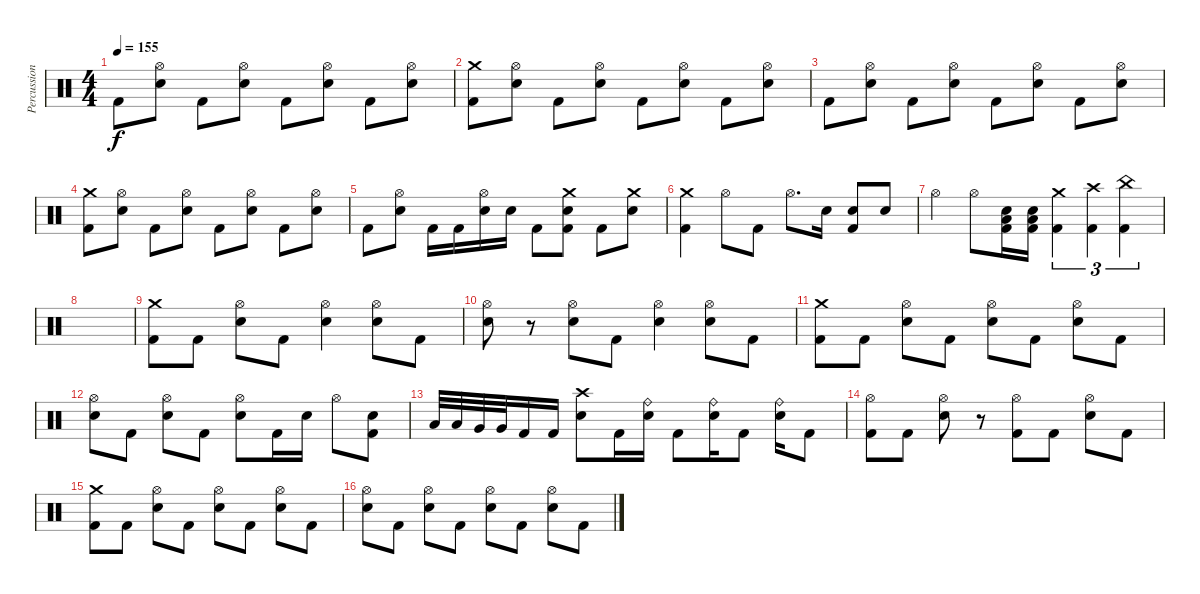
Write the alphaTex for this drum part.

\track ("Percussion" "Percussion") {instrument percussion}
\staff {score}
\articulation defaults
\ts (4 4)
\tempo 155
\clef neutral
\ks c "Kick (hit) 2".8{dy f}
("Hi-Hat (open)" "Electric Snare (hit)").8 "Kick (hit) 2".8 ("Hi-Hat (open)" "Electric Snare (hit)").8 "Kick (hit) 2".8 ("Hi-Hat (open)" "Electric Snare (hit)").8 "Kick (hit) 2".8 ("Hi-Hat (open)" "Electric Snare (hit)").8 |
("Crash medium (hit)" "Kick (hit) 2").8 ("Hi-Hat (open)" "Electric Snare (hit)").8 "Kick (hit) 2".8 ("Hi-Hat (open)" "Electric Snare (hit)").8 "Kick (hit) 2".8 ("Hi-Hat (open)" "Electric Snare (hit)").8 "Kick (hit) 2".8 ("Hi-Hat (open)" "Electric Snare (hit)").8 |
"Kick (hit) 2".8 ("Hi-Hat (open)" "Electric Snare (hit)").8 "Kick (hit) 2".8 ("Hi-Hat (open)" "Electric Snare (hit)").8 "Kick (hit) 2".8 ("Hi-Hat (open)" "Electric Snare (hit)").8 "Kick (hit) 2".8 ("Hi-Hat (open)" "Electric Snare (hit)").8 |
("Crash medium (hit)" "Kick (hit) 2").8 ("Hi-Hat (open)" "Electric Snare (hit)").8 "Kick (hit) 2".8 ("Hi-Hat (open)" "Electric Snare (hit)").8 "Kick (hit) 2".8 ("Hi-Hat (open)" "Electric Snare (hit)").8 "Kick (hit) 2".8 ("Hi-Hat (open)" "Electric Snare (hit)").8 |
"Kick (hit) 2".8 ("Hi-Hat (open)" "Electric Snare (hit)").8 "Kick (hit) 2".16 "Kick (hit) 2".16 ("Hi-Hat (open)" "Electric Snare (hit)").16 "Electric Snare (hit)".16 "Kick (hit) 2".8 ("Crash medium (hit)" "Electric Snare (hit)" "Kick (hit) 2").8 "Kick (hit) 2".8 ("Crash medium (hit)" "Electric Snare (hit)").8 |
("Crash medium (hit)" "Kick (hit) 2").4 "Hi-Hat (open)".8 "Kick (hit) 2".8 "Hi-Hat (open)".8{d} "Electric Snare (hit)".16 ("Electric Snare (hit)" "Kick (hit) 2").8 "Electric Snare (hit)".8 |
"Hi-Hat (open)".4 "Hi-Hat (open)".8 ("Electric Snare (hit)" "Low Floor Tom (hit)" "Kick (hit) 2").16 ("Electric Snare (hit)" "Low Floor Tom (hit)" "Kick (hit) 2").16 ("Crash medium (hit)" "Kick (hit) 2").4{tu (3 2)} ("Crash high (hit)" "Kick (hit) 2").4{tu (3 2)} ("China (hit)" "Kick (hit) 2").4{tu (3 2)} |
|
("Crash medium (hit)" "Kick (hit) 2").8 "Kick (hit) 2".8 ("Hi-Hat (open)" "Electric Snare (hit)").8 "Kick (hit) 2".8 ("Hi-Hat (open)" "Electric Snare (hit)").4 ("Hi-Hat (open)" "Electric Snare (hit)").8 "Kick (hit) 2".8 |
("Hi-Hat (open)" "Electric Snare (hit)").8 r.8 ("Hi-Hat (open)" "Electric Snare (hit)").8 "Kick (hit) 2".8 ("Hi-Hat (open)" "Electric Snare (hit)").4 ("Hi-Hat (open)" "Electric Snare (hit)").8 "Kick (hit) 2".8 |
("Crash medium (hit)" "Kick (hit) 2").8 "Kick (hit) 2".8 ("Hi-Hat (open)" "Electric Snare (hit)").8 "Kick (hit) 2".8 ("Hi-Hat (open)" "Electric Snare (hit)").8 "Kick (hit) 2".8 ("Hi-Hat (open)" "Electric Snare (hit)").8 "Kick (hit) 2".8 |
("Hi-Hat (open)" "Electric Snare (hit)").8 "Kick (hit) 2".8 ("Hi-Hat (open)" "Electric Snare (hit)").8 "Kick (hit) 2".8 ("Hi-Hat (open)" "Electric Snare (hit)").8 "Kick (hit) 2".16 "Electric Snare (hit)".16 "Hi-Hat (open)".8 ("Electric Snare (hit)" "Kick (hit) 2").8 |
"Low Tom (hit)".32 "Low Tom (hit)".32 "Very Low Tom (hit)".32 "Very Low Tom (hit)".32 "Kick (hit) 2".16 "Kick (hit) 2".16 ("Crash high (hit)" "Electric Snare (hit)").8 "Kick (hit) 2".16 ("Ride (bell)" "Electric Snare (hit)").16 "Kick (hit) 2".8 ("Ride (bell)" "Electric Snare (hit)").16 "Kick (hit) 2".8 ("Ride (bell)" "Electric Snare (hit)").16 "Kick (hit) 2".8 |
("Hi-Hat (open)" "Kick (hit) 2").8 "Kick (hit) 2".8 ("Hi-Hat (open)" "Electric Snare (hit)").8 r.8 ("Hi-Hat (open)" "Kick (hit) 2").8 "Kick (hit) 2".8 ("Hi-Hat (open)" "Electric Snare (hit)").8 "Kick (hit) 2".8 |
("Crash medium (hit)" "Kick (hit) 2").8 "Kick (hit) 2".8 ("Hi-Hat (open)" "Electric Snare (hit)").8 "Kick (hit) 2".8 ("Hi-Hat (open)" "Electric Snare (hit)").8 "Kick (hit) 2".8 ("Hi-Hat (open)" "Electric Snare (hit)").8 "Kick (hit) 2".8 |
("Hi-Hat (open)" "Electric Snare (hit)").8 "Kick (hit) 2".8 ("Hi-Hat (open)" "Electric Snare (hit)").8 "Kick (hit) 2".8 ("Hi-Hat (open)" "Electric Snare (hit)").8 "Kick (hit) 2".8 ("Hi-Hat (open)" "Electric Snare (hit)").8 "Kick (hit) 2".8
